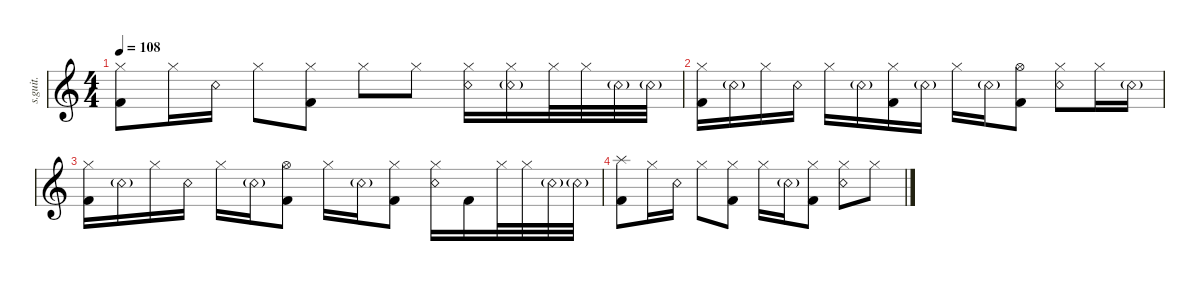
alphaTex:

\defaultSystemsLayout 4
\hideDynamics
\bracketExtendMode nobrackets
\track ("David Silveria" "s.guit.") {instrument percussion}
\staff {score}
\articulation defaults
\ts (4 4)
\tempo 108
\clef g2
\ks c
("Kick (hit) 2" "Hi-Hat (closed)").8{dy mf} "Hi-Hat (closed)".16 "Snare (rim shot)".16 "Hi-Hat (closed)".8 ("Hi-Hat (closed)" "Kick (hit) 2").8 "Hi-Hat (closed)".8{dy mp} "Hi-Hat (closed)".8 ("Snare (rim shot)" "Hi-Hat (closed)").16 ("Hi-Hat (closed)" "Snare (rim shot)"{g}).16 "Hi-Hat (closed)".32 "Hi-Hat (closed)".32 "Snare (rim shot)"{g}.32{dy p} "Snare (rim shot)"{g}.32 |
("Kick (hit) 2" "Hi-Hat (closed)").16{dy mp} "Snare (rim shot)"{g}.16{dy pp} "Hi-Hat (closed)".16{dy mp} "Snare (rim shot)".16 "Hi-Hat (closed)".16 "Snare (rim shot)"{g}.16{dy pp} ("Hi-Hat (closed)" "Kick (hit) 2").16{dy mp} "Snare (rim shot)"{g}.16{dy pp} "Hi-Hat (closed)".16{dy p} "Snare (rim shot)"{g}.16{dy pp} ("Kick (hit) 2" "Hi-Hat (open)").8{dy p} ("Snare (rim shot)" "Hi-Hat (closed)").8 "Hi-Hat (closed)".16 "Snare (rim shot)"{g}.16{dy ppp} |
("Kick (hit) 2" "Hi-Hat (closed)").16{dy p} "Snare (rim shot)"{g}.16{dy ppp} "Hi-Hat (closed)".16{dy p} "Snare (rim shot)".16 "Hi-Hat (closed)".16 "Snare (rim shot)"{g}.16{dy ppp} ("Kick (hit) 2" "Hi-Hat (open)").8{dy p} "Hi-Hat (closed)".16{dy pp} "Snare (rim shot)"{g}.16{dy ppp} ("Kick (hit) 2" "Hi-Hat (closed)").8{dy pp} ("Snare (rim shot)" "Hi-Hat (closed)").16 "Kick (hit) 2".16 "Hi-Hat (closed)".32 "Hi-Hat (closed)".32 "Snare (rim shot)"{g}.32{dy ppp} "Snare (rim shot)"{g}.32 |
("Kick (hit) 2" "Splash (hit)").8{dy pp} "Hi-Hat (closed)".16 "Snare (rim shot)".16 "Hi-Hat (closed)".8 ("Hi-Hat (closed)" "Kick (hit) 2").8 "Hi-Hat (closed)".16{dy ppp} "Snare (rim shot)"{g}.16 ("Kick (hit) 2" "Hi-Hat (closed)").8 ("Snare (rim shot)" "Hi-Hat (closed)").8 "Hi-Hat (closed)".8
